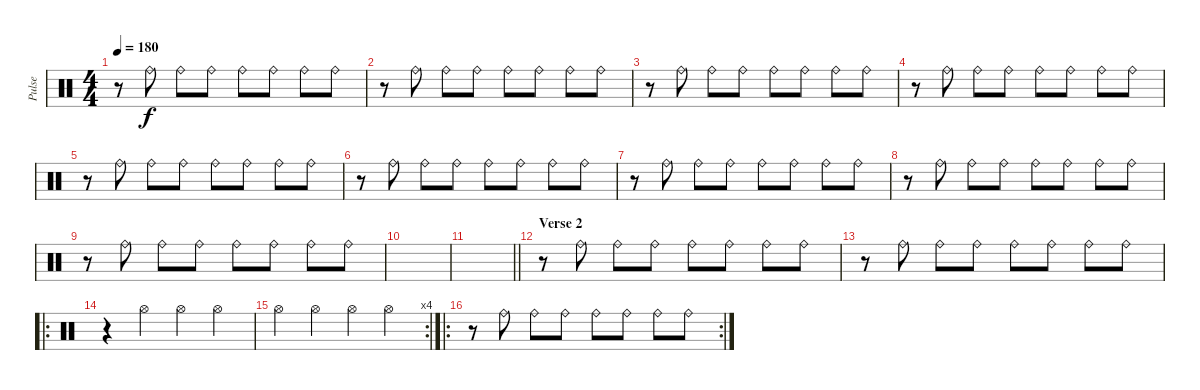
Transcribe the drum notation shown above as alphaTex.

\track ("Pulse" "Pulse") {instrument percussion}
\staff {score}
\articulation defaults
\ts (4 4)
\tempo 180
\clef neutral
\ks c
r.8{dy f} "Ride (bell)".8 "Ride (bell)".8 "Ride (bell)".8 "Ride (bell)".8 "Ride (bell)".8 "Ride (bell)".8 "Ride (bell)".8 |
r.8 "Ride (bell)".8 "Ride (bell)".8 "Ride (bell)".8 "Ride (bell)".8 "Ride (bell)".8 "Ride (bell)".8 "Ride (bell)".8 |
r.8 "Ride (bell)".8 "Ride (bell)".8 "Ride (bell)".8 "Ride (bell)".8 "Ride (bell)".8 "Ride (bell)".8 "Ride (bell)".8 |
r.8 "Ride (bell)".8 "Ride (bell)".8 "Ride (bell)".8 "Ride (bell)".8 "Ride (bell)".8 "Ride (bell)".8 "Ride (bell)".8 |
r.8 "Ride (bell)".8 "Ride (bell)".8 "Ride (bell)".8 "Ride (bell)".8 "Ride (bell)".8 "Ride (bell)".8 "Ride (bell)".8 |
r.8 "Ride (bell)".8 "Ride (bell)".8 "Ride (bell)".8 "Ride (bell)".8 "Ride (bell)".8 "Ride (bell)".8 "Ride (bell)".8 |
r.8 "Ride (bell)".8 "Ride (bell)".8 "Ride (bell)".8 "Ride (bell)".8 "Ride (bell)".8 "Ride (bell)".8 "Ride (bell)".8 |
r.8 "Ride (bell)".8 "Ride (bell)".8 "Ride (bell)".8 "Ride (bell)".8 "Ride (bell)".8 "Ride (bell)".8 "Ride (bell)".8 |
r.8 "Ride (bell)".8 "Ride (bell)".8 "Ride (bell)".8 "Ride (bell)".8 "Ride (bell)".8 "Ride (bell)".8 "Ride (bell)".8 |
|
\barLineRight lightlight
|
\section ("" "Verse 2")
r.8 "Ride (bell)".8 "Ride (bell)".8 "Ride (bell)".8 "Ride (bell)".8 "Ride (bell)".8 "Ride (bell)".8 "Ride (bell)".8 |
r.8 "Ride (bell)".8 "Ride (bell)".8 "Ride (bell)".8 "Ride (bell)".8 "Ride (bell)".8 "Ride (bell)".8 "Ride (bell)".8 |
\ro
r.4 "Hi-Hat (open)".4 "Hi-Hat (open)".4 "Hi-Hat (open)".4 |
\rc 4 "Hi-Hat (open)".4 "Hi-Hat (open)".4 "Hi-Hat (open)".4 "Hi-Hat (open)".4
|
\ro
\rc 2
r.8 "Ride (bell)".8 "Ride (bell)".8 "Ride (bell)".8 "Ride (bell)".8 "Ride (bell)".8 "Ride (bell)".8 "Ride (bell)".8
